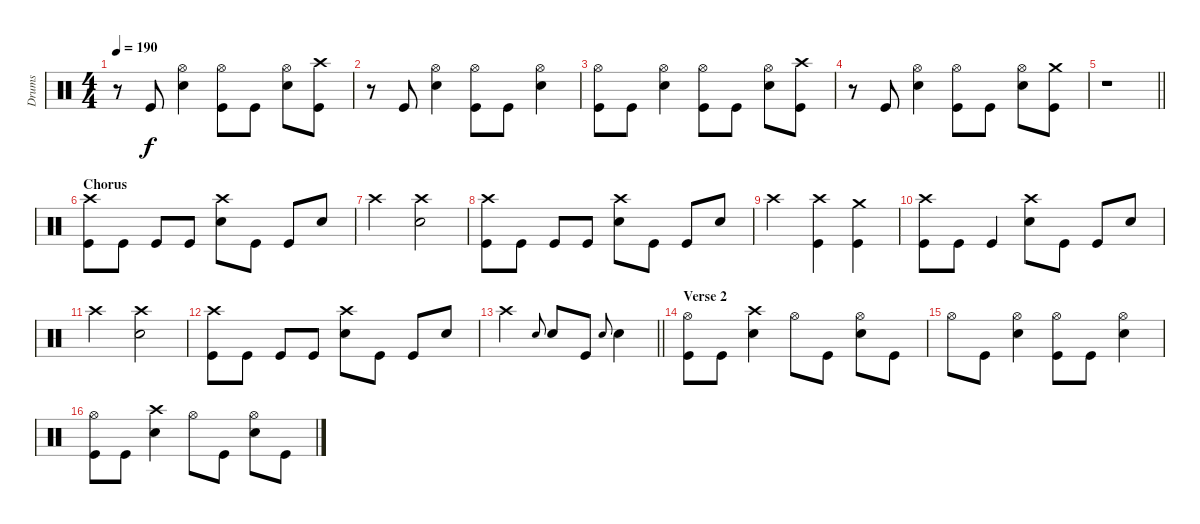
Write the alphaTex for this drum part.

\track ("Drums" "Drums") {instrument percussion}
\staff {score}
\articulation defaults
\ts (4 4)
\tempo 190
\clef neutral
\ks c
r.8{dy f} "Kick (hit)".8 ("Hi-Hat (open)" "Snare (hit) 2").4 ("Hi-Hat (open)" "Kick (hit)").8 "Kick (hit)".8 ("Hi-Hat (open)" "Snare (hit) 2").8 ("Crash high (hit)" "Kick (hit)").8 |
r.8 "Kick (hit)".8 ("Hi-Hat (open)" "Snare (hit) 2").4 ("Hi-Hat (open)" "Kick (hit)").8 "Kick (hit)".8 ("Hi-Hat (open)" "Snare (hit) 2").4 |
("Hi-Hat (open)" "Kick (hit)").8 "Kick (hit)".8 ("Hi-Hat (open)" "Snare (hit) 2").4 ("Hi-Hat (open)" "Kick (hit)").8 "Kick (hit)".8 ("Hi-Hat (open)" "Snare (hit) 2").8 ("Crash high (hit)" "Kick (hit)").8 |
r.8 "Kick (hit)".8 ("Hi-Hat (open)" "Snare (hit) 2").4 ("Hi-Hat (open)" "Kick (hit)").8 "Kick (hit)".8 ("Hi-Hat (open)" "Snare (hit) 2").8 ("Crash medium (hit)" "Kick (hit)").8 |
\barLineRight lightlight
r.1 |
\section ("" "Chorus")
("Crash high (hit)" "Kick (hit)").8 "Kick (hit)".8 "Kick (hit)".8 "Kick (hit)".8 ("Crash high (hit)" "Snare (hit) 2").8 "Kick (hit)".8 "Kick (hit)".8 "Snare (hit) 2".8 |
"Crash high (hit)".2 ("Crash high (hit)" "Snare (hit) 2").2 |
("Crash high (hit)" "Kick (hit)").8 "Kick (hit)".8 "Kick (hit)".8 "Kick (hit)".8 ("Crash high (hit)" "Snare (hit) 2").8 "Kick (hit)".8 "Kick (hit)".8 "Snare (hit) 2".8 |
"Crash high (hit)".2 ("Crash high (hit)" "Kick (hit)").4 ("Crash medium (hit)" "Kick (hit)").4 |
("Crash high (hit)" "Kick (hit)").8 "Kick (hit)".8 "Kick (hit)".4 ("Crash high (hit)" "Snare (hit) 2").8 "Kick (hit)".8 "Kick (hit)".8 "Snare (hit) 2".8 |
"Crash high (hit)".2 ("Crash high (hit)" "Snare (hit) 2").2 |
("Crash high (hit)" "Kick (hit)").8 "Kick (hit)".8 "Kick (hit)".8 "Kick (hit)".8 ("Crash high (hit)" "Snare (hit) 2").8 "Kick (hit)".8 "Kick (hit)".8 "Snare (hit) 2".8 |
\barLineRight lightlight "Crash high (hit)".2 "Snare (hit) 2".8{gr onbeat} "Snare (hit) 2".8 "Kick (hit)".8 "Snare (hit) 2".8{gr onbeat} "Snare (hit) 2".4
|
\section ("" "Verse 2")
("Hi-Hat (open)" "Kick (hit)").8 "Kick (hit)".8 ("Crash high (hit)" "Snare (hit) 2").4 "Hi-Hat (open)".8 "Kick (hit)".8 ("Hi-Hat (open)" "Snare (hit) 2").8 "Kick (hit)".8 |
"Hi-Hat (open)".8 "Kick (hit)".8 ("Hi-Hat (open)" "Snare (hit) 2").4 ("Hi-Hat (open)" "Kick (hit)").8 "Kick (hit)".8 ("Hi-Hat (open)" "Snare (hit) 2").4 |
("Hi-Hat (open)" "Kick (hit)").8 "Kick (hit)".8 ("Crash high (hit)" "Snare (hit) 2").4 "Hi-Hat (open)".8 "Kick (hit)".8 ("Hi-Hat (open)" "Snare (hit) 2").8 "Kick (hit)".8
